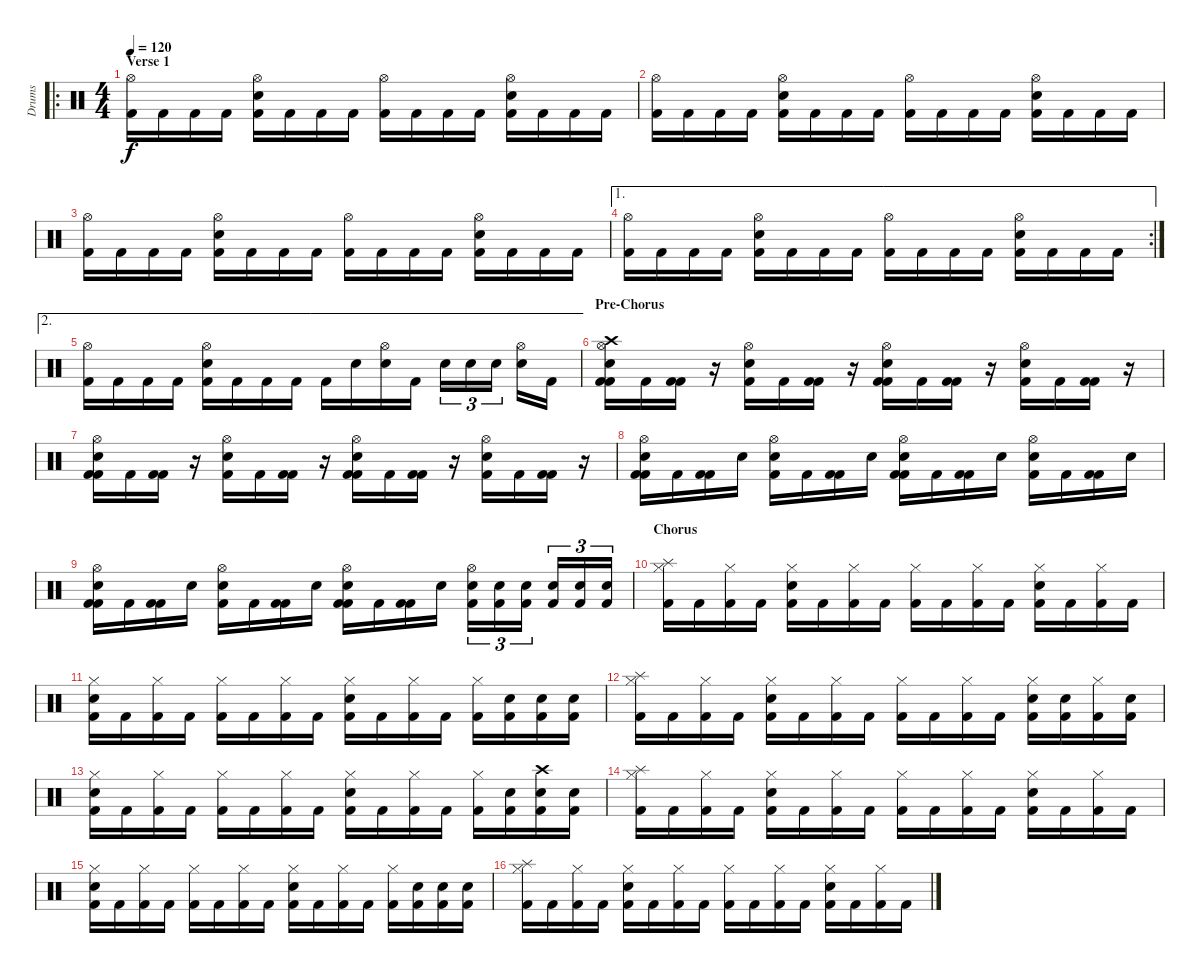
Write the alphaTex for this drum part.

\track ("Drums" "Drums") {instrument percussion}
\staff {score}
\articulation defaults
\ro
\ts (4 4)
\section ("" "Verse 1")
\tempo 120
\clef neutral
\ks c
("Hi-Hat (open)" "Kick (hit) 2").16{dy f} "Kick (hit) 2".16 "Kick (hit) 2".16 "Kick (hit) 2".16 ("Hi-Hat (open)" "Electric Snare (hit)" "Kick (hit) 2").16 "Kick (hit) 2".16 "Kick (hit) 2".16 "Kick (hit) 2".16 ("Hi-Hat (open)" "Kick (hit) 2").16 "Kick (hit) 2".16 "Kick (hit) 2".16 "Kick (hit) 2".16 ("Hi-Hat (open)" "Electric Snare (hit)" "Kick (hit) 2").16 "Kick (hit) 2".16 "Kick (hit) 2".16 "Kick (hit) 2".16 |
("Hi-Hat (open)" "Kick (hit) 2").16 "Kick (hit) 2".16 "Kick (hit) 2".16 "Kick (hit) 2".16 ("Hi-Hat (open)" "Electric Snare (hit)" "Kick (hit) 2").16 "Kick (hit) 2".16 "Kick (hit) 2".16 "Kick (hit) 2".16 ("Hi-Hat (open)" "Kick (hit) 2").16 "Kick (hit) 2".16 "Kick (hit) 2".16 "Kick (hit) 2".16 ("Hi-Hat (open)" "Electric Snare (hit)" "Kick (hit) 2").16 "Kick (hit) 2".16 "Kick (hit) 2".16 "Kick (hit) 2".16 |
("Hi-Hat (open)" "Kick (hit) 2").16 "Kick (hit) 2".16 "Kick (hit) 2".16 "Kick (hit) 2".16 ("Hi-Hat (open)" "Electric Snare (hit)" "Kick (hit) 2").16 "Kick (hit) 2".16 "Kick (hit) 2".16 "Kick (hit) 2".16 ("Hi-Hat (open)" "Kick (hit) 2").16 "Kick (hit) 2".16 "Kick (hit) 2".16 "Kick (hit) 2".16 ("Hi-Hat (open)" "Electric Snare (hit)" "Kick (hit) 2").16 "Kick (hit) 2".16 "Kick (hit) 2".16 "Kick (hit) 2".16 |
\ae 1
\rc 2
("Hi-Hat (open)" "Kick (hit) 2").16 "Kick (hit) 2".16 "Kick (hit) 2".16 "Kick (hit) 2".16 ("Hi-Hat (open)" "Electric Snare (hit)" "Kick (hit) 2").16 "Kick (hit) 2".16 "Kick (hit) 2".16 "Kick (hit) 2".16 ("Hi-Hat (open)" "Kick (hit) 2").16 "Kick (hit) 2".16 "Kick (hit) 2".16 "Kick (hit) 2".16 ("Hi-Hat (open)" "Electric Snare (hit)" "Kick (hit) 2").16 "Kick (hit) 2".16 "Kick (hit) 2".16 "Kick (hit) 2".16 |
\ae 2
("Hi-Hat (open)" "Kick (hit) 2").16 "Kick (hit) 2".16 "Kick (hit) 2".16 "Kick (hit) 2".16 ("Hi-Hat (open)" "Electric Snare (hit)" "Kick (hit) 2").16 "Kick (hit) 2".16 "Kick (hit) 2".16 "Kick (hit) 2".16 "Kick (hit) 2".16 "Electric Snare (hit)".16 ("Hi-Hat (open)" "Electric Snare (hit)").16 "Kick (hit) 2".16 "Electric Snare (hit)".16{tu (3 2)} "Electric Snare (hit)".16{tu (3 2)} "Electric Snare (hit)".16{tu (3 2)} ("Hi-Hat (open)" "Electric Snare (hit)").16 "Kick (hit) 2".16 |
\section ("" "Pre-Chorus")
("Crash high (hit)" "Hi-Hat (open)" "Electric Snare (hit)" "Kick (hit) 2" "Kick (hit) 2").16 "Kick (hit) 2".16 ("Kick (hit) 2" "Kick (hit) 2").16 r.16 ("Hi-Hat (open)" "Electric Snare (hit)" "Kick (hit) 2").16 "Kick (hit) 2".16 ("Kick (hit) 2" "Kick (hit) 2").16 r.16 ("Hi-Hat (open)" "Electric Snare (hit)" "Kick (hit) 2" "Kick (hit) 2").16 "Kick (hit) 2".16 ("Kick (hit) 2" "Kick (hit) 2").16 r.16 ("Hi-Hat (open)" "Electric Snare (hit)" "Kick (hit) 2").16 "Kick (hit) 2".16 ("Kick (hit) 2" "Kick (hit) 2").16 r.16 |
("Hi-Hat (open)" "Electric Snare (hit)" "Kick (hit) 2" "Kick (hit) 2").16 "Kick (hit) 2".16 ("Kick (hit) 2" "Kick (hit) 2").16 r.16 ("Hi-Hat (open)" "Electric Snare (hit)" "Kick (hit) 2").16 "Kick (hit) 2".16 ("Kick (hit) 2" "Kick (hit) 2").16 r.16 ("Hi-Hat (open)" "Electric Snare (hit)" "Kick (hit) 2" "Kick (hit) 2").16 "Kick (hit) 2".16 ("Kick (hit) 2" "Kick (hit) 2").16 r.16 ("Hi-Hat (open)" "Electric Snare (hit)" "Kick (hit) 2").16 "Kick (hit) 2".16 ("Kick (hit) 2" "Kick (hit) 2").16 r.16 |
("Hi-Hat (open)" "Electric Snare (hit)" "Kick (hit) 2" "Kick (hit) 2").16 "Kick (hit) 2".16 ("Kick (hit) 2" "Kick (hit) 2").16 "Electric Snare (hit)".16 ("Hi-Hat (open)" "Electric Snare (hit)" "Kick (hit) 2").16 "Kick (hit) 2".16 ("Kick (hit) 2" "Kick (hit) 2").16 "Electric Snare (hit)".16 ("Hi-Hat (open)" "Electric Snare (hit)" "Kick (hit) 2" "Kick (hit) 2").16 "Kick (hit) 2".16 ("Kick (hit) 2" "Kick (hit) 2").16 "Electric Snare (hit)".16 ("Hi-Hat (open)" "Electric Snare (hit)" "Kick (hit) 2").16 "Kick (hit) 2".16 ("Kick (hit) 2" "Kick (hit) 2").16 "Electric Snare (hit)".16 |
("Hi-Hat (open)" "Electric Snare (hit)" "Kick (hit) 2" "Kick (hit) 2").16 "Kick (hit) 2".16 ("Kick (hit) 2" "Kick (hit) 2").16 "Electric Snare (hit)".16 ("Hi-Hat (open)" "Electric Snare (hit)" "Kick (hit) 2").16 "Kick (hit) 2".16 ("Kick (hit) 2" "Kick (hit) 2").16 "Electric Snare (hit)".16 ("Hi-Hat (open)" "Electric Snare (hit)" "Kick (hit) 2" "Kick (hit) 2").16 "Kick (hit) 2".16 ("Kick (hit) 2" "Kick (hit) 2").16 "Electric Snare (hit)".16 ("Hi-Hat (open)" "Electric Snare (hit)" "Kick (hit) 2").16{tu (3 2)} ("Electric Snare (hit)" "Kick (hit) 2").16{tu (3 2)} ("Electric Snare (hit)" "Kick (hit) 2").16{tu (3 2)} ("Electric Snare (hit)" "Kick (hit) 2").16{tu (3 2)} ("Electric Snare (hit)" "Kick (hit) 2").16{tu (3 2)} ("Electric Snare (hit)" "Kick (hit) 2").16{tu (3 2)} |
\section ("" "Chorus")
("Splash (hit)" "Hi-Hat (closed)" "Kick (hit) 2").16 "Kick (hit) 2".16 ("Hi-Hat (closed)" "Kick (hit) 2").16 "Kick (hit) 2".16 ("Hi-Hat (closed)" "Electric Snare (hit)" "Kick (hit) 2").16 "Kick (hit) 2".16 ("Hi-Hat (closed)" "Kick (hit) 2").16 "Kick (hit) 2".16 ("Hi-Hat (closed)" "Kick (hit) 2").16 "Kick (hit) 2".16 ("Hi-Hat (closed)" "Kick (hit) 2").16 "Kick (hit) 2".16 ("Hi-Hat (closed)" "Electric Snare (hit)" "Kick (hit) 2").16 "Kick (hit) 2".16 ("Hi-Hat (closed)" "Kick (hit) 2").16 "Kick (hit) 2".16 |
("Hi-Hat (closed)" "Electric Snare (hit)" "Kick (hit) 2").16 "Kick (hit) 2".16 ("Hi-Hat (closed)" "Kick (hit) 2").16 "Kick (hit) 2".16 ("Hi-Hat (closed)" "Kick (hit) 2").16 "Kick (hit) 2".16 ("Hi-Hat (closed)" "Kick (hit) 2").16 "Kick (hit) 2".16 ("Hi-Hat (closed)" "Electric Snare (hit)" "Kick (hit) 2").16 "Kick (hit) 2".16 ("Hi-Hat (closed)" "Kick (hit) 2").16 "Kick (hit) 2".16 ("Hi-Hat (closed)" "Kick (hit) 2").16 ("Electric Snare (hit)" "Kick (hit) 2").16 ("Electric Snare (hit)" "Kick (hit) 2").16 ("Electric Snare (hit)" "Kick (hit) 2").16 |
("Splash (hit)" "Hi-Hat (closed)" "Kick (hit) 2").16 "Kick (hit) 2".16 ("Hi-Hat (closed)" "Kick (hit) 2").16 "Kick (hit) 2".16 ("Hi-Hat (closed)" "Electric Snare (hit)" "Kick (hit) 2").16 "Kick (hit) 2".16 ("Hi-Hat (closed)" "Kick (hit) 2").16 "Kick (hit) 2".16 ("Hi-Hat (closed)" "Kick (hit) 2").16 "Kick (hit) 2".16 ("Hi-Hat (closed)" "Kick (hit) 2").16 "Kick (hit) 2".16 ("Hi-Hat (closed)" "Electric Snare (hit)" "Kick (hit) 2").16 ("Electric Snare (hit)" "Kick (hit) 2").16 ("Hi-Hat (closed)" "Kick (hit) 2").16 ("Electric Snare (hit)" "Kick (hit) 2").16 |
("Hi-Hat (closed)" "Electric Snare (hit)" "Kick (hit) 2").16 "Kick (hit) 2".16 ("Hi-Hat (closed)" "Kick (hit) 2").16 "Kick (hit) 2".16 ("Hi-Hat (closed)" "Kick (hit) 2").16 "Kick (hit) 2".16 ("Hi-Hat (closed)" "Kick (hit) 2").16 "Kick (hit) 2".16 ("Hi-Hat (closed)" "Electric Snare (hit)" "Kick (hit) 2").16 "Kick (hit) 2".16 ("Hi-Hat (closed)" "Kick (hit) 2").16 "Kick (hit) 2".16 ("Hi-Hat (closed)" "Kick (hit) 2").16 ("Electric Snare (hit)" "Kick (hit) 2").16 ("Crash high (hit)" "Electric Snare (hit)" "Kick (hit) 2").16 ("Electric Snare (hit)" "Kick (hit) 2").16 |
("Splash (hit)" "Hi-Hat (closed)" "Kick (hit) 2").16 "Kick (hit) 2".16 ("Hi-Hat (closed)" "Kick (hit) 2").16 "Kick (hit) 2".16 ("Hi-Hat (closed)" "Electric Snare (hit)" "Kick (hit) 2").16 "Kick (hit) 2".16 ("Hi-Hat (closed)" "Kick (hit) 2").16 "Kick (hit) 2".16 ("Hi-Hat (closed)" "Kick (hit) 2").16 "Kick (hit) 2".16 ("Hi-Hat (closed)" "Kick (hit) 2").16 "Kick (hit) 2".16 ("Hi-Hat (closed)" "Electric Snare (hit)" "Kick (hit) 2").16 "Kick (hit) 2".16 ("Hi-Hat (closed)" "Kick (hit) 2").16 "Kick (hit) 2".16 |
("Hi-Hat (closed)" "Electric Snare (hit)" "Kick (hit) 2").16 "Kick (hit) 2".16 ("Hi-Hat (closed)" "Kick (hit) 2").16 "Kick (hit) 2".16 ("Hi-Hat (closed)" "Kick (hit) 2").16 "Kick (hit) 2".16 ("Hi-Hat (closed)" "Kick (hit) 2").16 "Kick (hit) 2".16 ("Hi-Hat (closed)" "Electric Snare (hit)" "Kick (hit) 2").16 "Kick (hit) 2".16 ("Hi-Hat (closed)" "Kick (hit) 2").16 "Kick (hit) 2".16 ("Hi-Hat (closed)" "Kick (hit) 2").16 ("Electric Snare (hit)" "Kick (hit) 2").16 ("Electric Snare (hit)" "Kick (hit) 2").16 ("Electric Snare (hit)" "Kick (hit) 2").16 |
("Splash (hit)" "Hi-Hat (closed)" "Kick (hit) 2").16 "Kick (hit) 2".16 ("Hi-Hat (closed)" "Kick (hit) 2").16 "Kick (hit) 2".16 ("Hi-Hat (closed)" "Electric Snare (hit)" "Kick (hit) 2").16 "Kick (hit) 2".16 ("Hi-Hat (closed)" "Kick (hit) 2").16 "Kick (hit) 2".16 ("Hi-Hat (closed)" "Kick (hit) 2").16 "Kick (hit) 2".16 ("Hi-Hat (closed)" "Kick (hit) 2").16 "Kick (hit) 2".16 ("Hi-Hat (closed)" "Electric Snare (hit)" "Kick (hit) 2").16 "Kick (hit) 2".16 ("Hi-Hat (closed)" "Kick (hit) 2").16 "Kick (hit) 2".16
